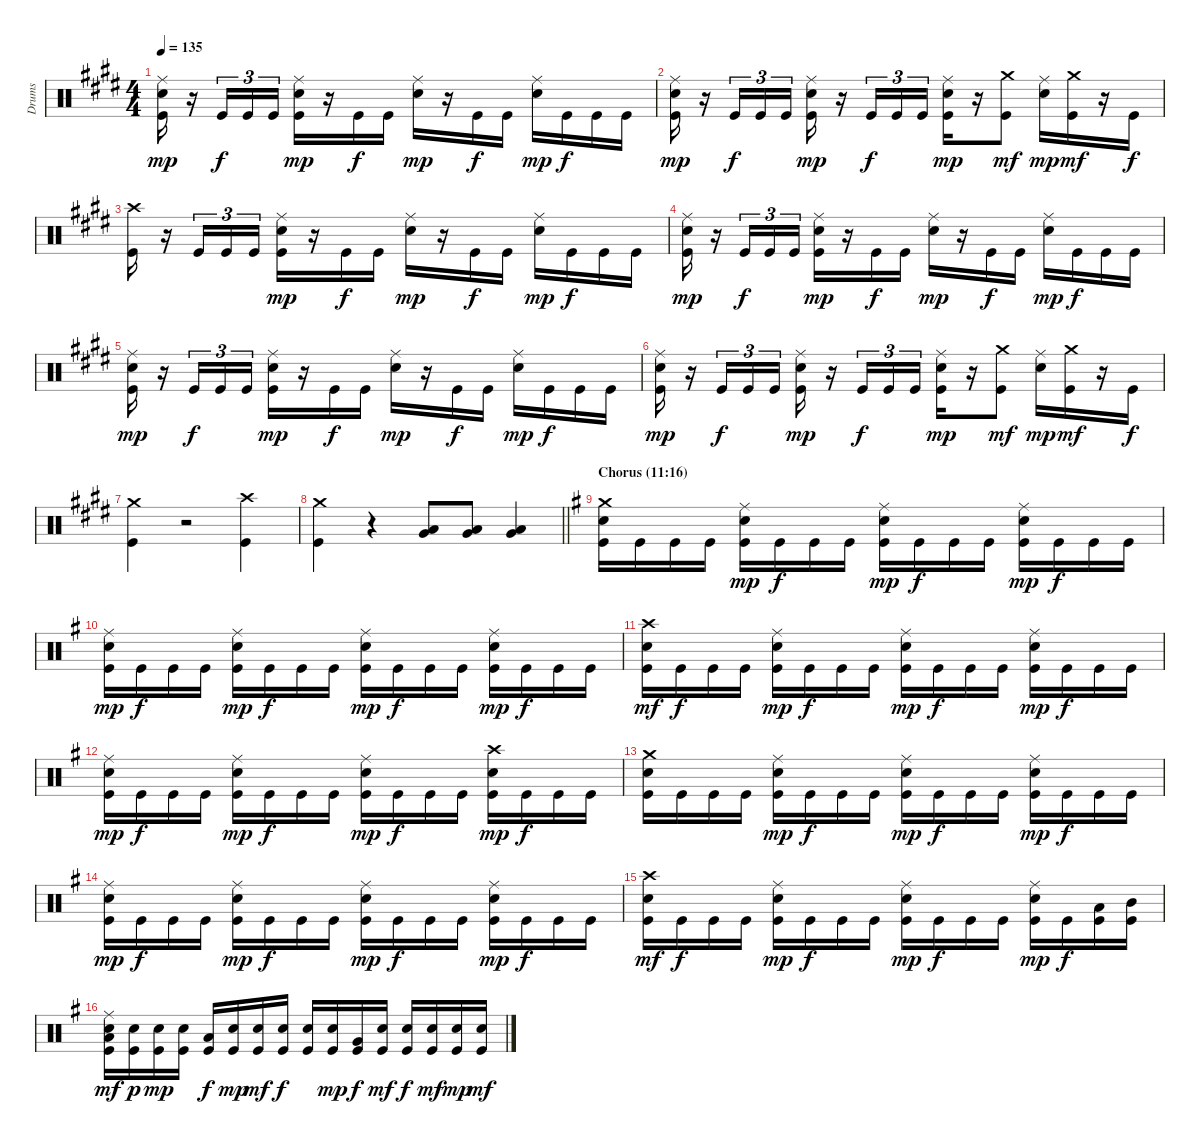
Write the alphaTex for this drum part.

\track ("Drums" "Drums") {instrument percussion}
\staff {score}
\articulation defaults
\ts (4 4)
\tempo 135
\clef neutral
\ks c#minor
("Ride (middle)" "Snare (hit) 2" "Kick (hit)").16{dy mp} r.16 "Kick (hit)".16{tu (3 2) dy f} "Kick (hit)".16{tu (3 2)} "Kick (hit)".16{tu (3 2)} ("Ride (middle)" "Snare (hit) 2" "Kick (hit)").16{dy mp} r.16 "Kick (hit)".16{dy f} "Kick (hit)".16 ("Ride (middle)" "Snare (hit) 2").16{dy mp} r.16 "Kick (hit)".16{dy f} "Kick (hit)".16 ("Ride (middle)" "Snare (hit) 2").16{dy mp} "Kick (hit)".16{dy f} "Kick (hit)".16 "Kick (hit)".16 |
("Ride (middle)" "Snare (hit) 2" "Kick (hit)").16{dy mp} r.16 "Kick (hit)".16{tu (3 2) dy f} "Kick (hit)".16{tu (3 2)} "Kick (hit)".16{tu (3 2)} ("Ride (middle)" "Snare (hit) 2" "Kick (hit)").16{dy mp} r.16 "Kick (hit)".16{tu (3 2) dy f} "Kick (hit)".16{tu (3 2)} "Kick (hit)".16{tu (3 2)} ("Ride (middle)" "Snare (hit) 2" "Kick (hit)").16{dy mp} r.16 ("Crash medium (hit)" "Kick (hit)").8{dy mf} ("Ride (middle)" "Snare (hit) 2").16{dy mp} ("Crash medium (hit)" "Kick (hit)").16{dy mf} r.16 "Kick (hit)".16{dy f} |
("Crash high (hit)" "Kick (hit)").16 r.16 "Kick (hit)".16{tu (3 2)} "Kick (hit)".16{tu (3 2)} "Kick (hit)".16{tu (3 2)} ("Ride (middle)" "Snare (hit) 2" "Kick (hit)").16{dy mp} r.16 "Kick (hit)".16{dy f} "Kick (hit)".16 ("Ride (middle)" "Snare (hit) 2").16{dy mp} r.16 "Kick (hit)".16{dy f} "Kick (hit)".16 ("Ride (middle)" "Snare (hit) 2").16{dy mp} "Kick (hit)".16{dy f} "Kick (hit)".16 "Kick (hit)".16 |
("Ride (middle)" "Snare (hit) 2" "Kick (hit)").16{dy mp} r.16 "Kick (hit)".16{tu (3 2) dy f} "Kick (hit)".16{tu (3 2)} "Kick (hit)".16{tu (3 2)} ("Ride (middle)" "Snare (hit) 2" "Kick (hit)").16{dy mp} r.16 "Kick (hit)".16{dy f} "Kick (hit)".16 ("Ride (middle)" "Snare (hit) 2").16{dy mp} r.16 "Kick (hit)".16{dy f} "Kick (hit)".16 ("Ride (middle)" "Snare (hit) 2").16{dy mp} "Kick (hit)".16{dy f} "Kick (hit)".16 "Kick (hit)".16 |
("Ride (middle)" "Snare (hit) 2" "Kick (hit)").16{dy mp} r.16 "Kick (hit)".16{tu (3 2) dy f} "Kick (hit)".16{tu (3 2)} "Kick (hit)".16{tu (3 2)} ("Ride (middle)" "Snare (hit) 2" "Kick (hit)").16{dy mp} r.16 "Kick (hit)".16{dy f} "Kick (hit)".16 ("Ride (middle)" "Snare (hit) 2").16{dy mp} r.16 "Kick (hit)".16{dy f} "Kick (hit)".16 ("Ride (middle)" "Snare (hit) 2").16{dy mp} "Kick (hit)".16{dy f} "Kick (hit)".16 "Kick (hit)".16 |
("Ride (middle)" "Snare (hit) 2" "Kick (hit)").16{dy mp} r.16 "Kick (hit)".16{tu (3 2) dy f} "Kick (hit)".16{tu (3 2)} "Kick (hit)".16{tu (3 2)} ("Ride (middle)" "Snare (hit) 2" "Kick (hit)").16{dy mp} r.16 "Kick (hit)".16{tu (3 2) dy f} "Kick (hit)".16{tu (3 2)} "Kick (hit)".16{tu (3 2)} ("Ride (middle)" "Snare (hit) 2" "Kick (hit)").16{dy mp} r.16 ("Crash medium (hit)" "Kick (hit)").8{dy mf} ("Ride (middle)" "Snare (hit) 2").16{dy mp} ("Crash medium (hit)" "Kick (hit)").16{dy mf} r.16 "Kick (hit)".16{dy f} |
("Crash medium (hit)" "Kick (hit)").4 r.2 ("Crash high (hit)" "Kick (hit)").4 |
\barLineRight lightlight
("Crash medium (hit)" "Kick (hit)").4 r.4 ("Low Tom (hit)" "Very Low Tom (hit)").8 ("Low Tom (hit)" "Very Low Tom (hit)").8 ("Low Tom (hit)" "Very Low Tom (hit)").4 |
\section ("" "Chorus (11:16)")
\ks eminor
("Crash medium (hit)" "Snare (hit) 2" "Kick (hit)").16 "Kick (hit)".16 "Kick (hit)".16 "Kick (hit)".16 ("Ride (middle)" "Snare (hit) 2" "Kick (hit)").16{dy mp} "Kick (hit)".16{dy f} "Kick (hit)".16 "Kick (hit)".16 ("Ride (middle)" "Snare (hit) 2" "Kick (hit)").16{dy mp} "Kick (hit)".16{dy f} "Kick (hit)".16 "Kick (hit)".16 ("Ride (middle)" "Snare (hit) 2" "Kick (hit)").16{dy mp} "Kick (hit)".16{dy f} "Kick (hit)".16 "Kick (hit)".16 |
("Ride (middle)" "Snare (hit) 2" "Kick (hit)").16{dy mp} "Kick (hit)".16{dy f} "Kick (hit)".16 "Kick (hit)".16 ("Ride (middle)" "Snare (hit) 2" "Kick (hit)").16{dy mp} "Kick (hit)".16{dy f} "Kick (hit)".16 "Kick (hit)".16 ("Ride (middle)" "Snare (hit) 2" "Kick (hit)").16{dy mp} "Kick (hit)".16{dy f} "Kick (hit)".16 "Kick (hit)".16 ("Ride (middle)" "Snare (hit) 2" "Kick (hit)").16{dy mp} "Kick (hit)".16{dy f} "Kick (hit)".16 "Kick (hit)".16 |
("Crash high (hit)" "Snare (hit) 2" "Kick (hit)").16{dy mf} "Kick (hit)".16{dy f} "Kick (hit)".16 "Kick (hit)".16 ("Ride (middle)" "Snare (hit) 2" "Kick (hit)").16{dy mp} "Kick (hit)".16{dy f} "Kick (hit)".16 "Kick (hit)".16 ("Ride (middle)" "Snare (hit) 2" "Kick (hit)").16{dy mp} "Kick (hit)".16{dy f} "Kick (hit)".16 "Kick (hit)".16 ("Ride (middle)" "Snare (hit) 2" "Kick (hit)").16{dy mp} "Kick (hit)".16{dy f} "Kick (hit)".16 "Kick (hit)".16 |
("Ride (middle)" "Snare (hit) 2" "Kick (hit)").16{dy mp} "Kick (hit)".16{dy f} "Kick (hit)".16 "Kick (hit)".16 ("Ride (middle)" "Snare (hit) 2" "Kick (hit)").16{dy mp} "Kick (hit)".16{dy f} "Kick (hit)".16 "Kick (hit)".16 ("Ride (middle)" "Snare (hit) 2" "Kick (hit)").16{dy mp} "Kick (hit)".16{dy f} "Kick (hit)".16 "Kick (hit)".16 ("Crash high (hit)" "Snare (hit) 2" "Kick (hit)").16{dy mp} "Kick (hit)".16{dy f} "Kick (hit)".16 "Kick (hit)".16 |
("Crash medium (hit)" "Snare (hit) 2" "Kick (hit)").16 "Kick (hit)".16 "Kick (hit)".16 "Kick (hit)".16 ("Ride (middle)" "Snare (hit) 2" "Kick (hit)").16{dy mp} "Kick (hit)".16{dy f} "Kick (hit)".16 "Kick (hit)".16 ("Ride (middle)" "Snare (hit) 2" "Kick (hit)").16{dy mp} "Kick (hit)".16{dy f} "Kick (hit)".16 "Kick (hit)".16 ("Ride (middle)" "Snare (hit) 2" "Kick (hit)").16{dy mp} "Kick (hit)".16{dy f} "Kick (hit)".16 "Kick (hit)".16 |
("Ride (middle)" "Snare (hit) 2" "Kick (hit)").16{dy mp} "Kick (hit)".16{dy f} "Kick (hit)".16 "Kick (hit)".16 ("Ride (middle)" "Snare (hit) 2" "Kick (hit)").16{dy mp} "Kick (hit)".16{dy f} "Kick (hit)".16 "Kick (hit)".16 ("Ride (middle)" "Snare (hit) 2" "Kick (hit)").16{dy mp} "Kick (hit)".16{dy f} "Kick (hit)".16 "Kick (hit)".16 ("Ride (middle)" "Snare (hit) 2" "Kick (hit)").16{dy mp} "Kick (hit)".16{dy f} "Kick (hit)".16 "Kick (hit)".16 |
("Crash high (hit)" "Snare (hit) 2" "Kick (hit)").16{dy mf} "Kick (hit)".16{dy f} "Kick (hit)".16 "Kick (hit)".16 ("Ride (middle)" "Snare (hit) 2" "Kick (hit)").16{dy mp} "Kick (hit)".16{dy f} "Kick (hit)".16 "Kick (hit)".16 ("Ride (middle)" "Snare (hit) 2" "Kick (hit)").16{dy mp} "Kick (hit)".16{dy f} "Kick (hit)".16 "Kick (hit)".16 ("Ride (middle)" "Snare (hit) 2" "Kick (hit)").16{dy mp} "Kick (hit)".16{dy f} ("Low Tom (hit)" "Kick (hit)").16 ("Mid Tom (hit)" "Kick (hit)").16 |
("Ride (middle)" "Low Floor Tom (hit)" "Snare (hit) 2" "Kick (hit)").16{dy mf} ("Snare (hit) 2" "Kick (hit)").16{dy p} ("Snare (hit) 2" "Kick (hit)").16{dy mp} ("Snare (hit) 2" "Kick (hit)").16 ("Low Tom (hit)" "Kick (hit)").16{dy f} ("Snare (hit) 2" "Kick (hit)").16{dy mp} ("Snare (hit) 2" "Kick (hit)").16{dy mf} ("Snare (hit) 2" "Kick (hit)").16{dy f} ("Snare (hit) 2" "Kick (hit)").16 ("Snare (hit) 2" "Kick (hit)").16{dy mp} ("Very Low Tom (hit)" "Kick (hit)").16{dy f} ("Snare (hit) 2" "Kick (hit)").16{dy mf} ("Snare (hit) 2" "Kick (hit)").16{dy f} ("Snare (hit) 2" "Kick (hit)").16{dy mf} ("Snare (hit) 2" "Kick (hit)").16{dy mp} ("Snare (hit) 2" "Kick (hit)").16{dy mf}
